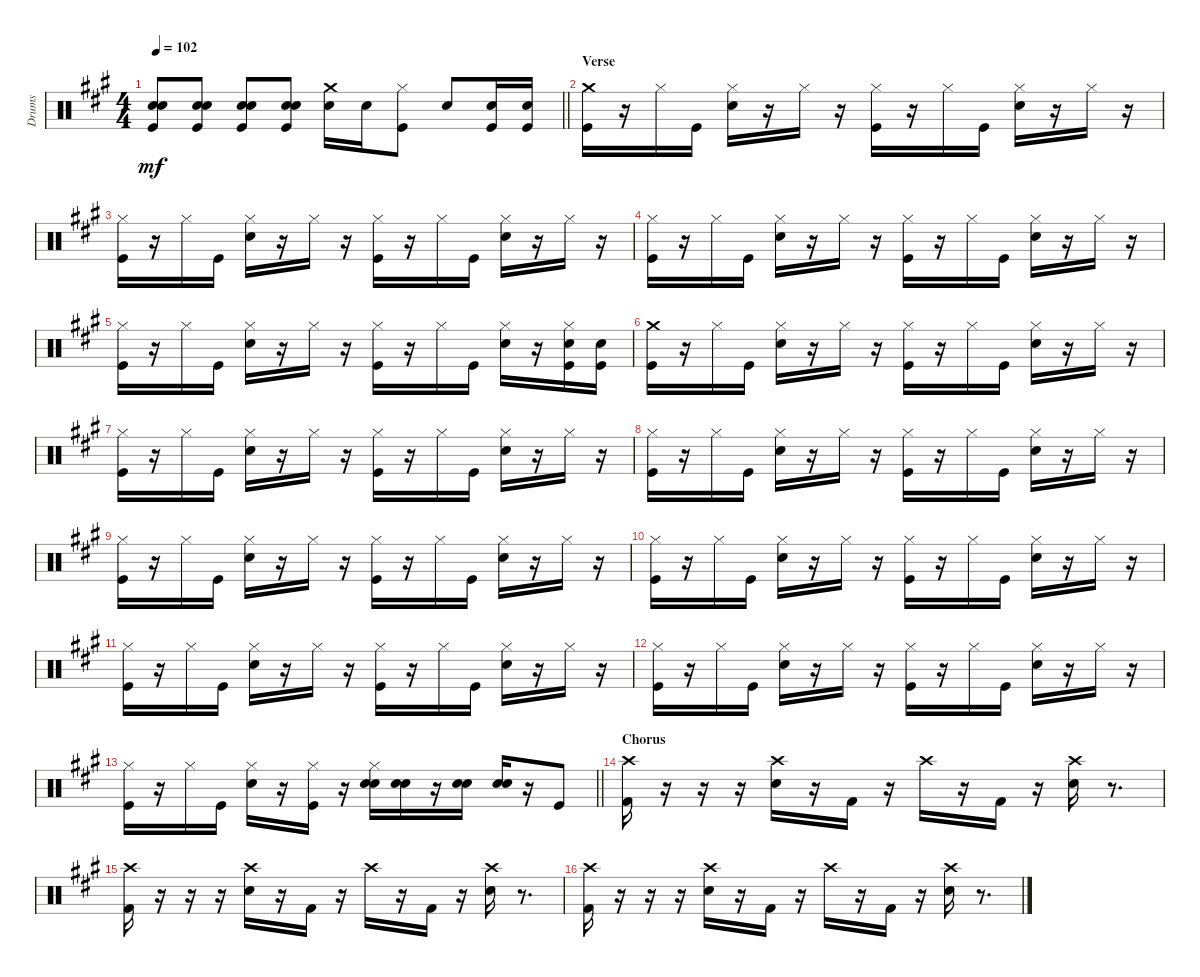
\track ("Drums" "Drums") {instrument percussion}
\staff {score}
\articulation defaults
\ts (4 4)
\tempo 102
\clef neutral
\barLineRight lightlight
\ks f#minor
("Snare (hit) 2" "Electric Snare (hit)" "Kick (hit)").8{dy mf} ("Snare (hit) 2" "Electric Snare (hit)" "Kick (hit)").8 ("Snare (hit) 2" "Electric Snare (hit)" "Kick (hit)").8 ("Snare (hit) 2" "Electric Snare (hit)" "Kick (hit)").8 ("Crash medium (hit)" "Electric Snare (hit)").16 "Electric Snare (hit)".16 ("Hi-Hat (closed)" "Kick (hit)").8 "Electric Snare (hit)".8 ("Electric Snare (hit)" "Kick (hit)").16 ("Electric Snare (hit)" "Kick (hit)").16 |
\section ("" "Verse")
("Crash medium (hit)" "Kick (hit)").16 r.16 "Hi-Hat (closed)".16 "Kick (hit)".16 ("Hi-Hat (closed)" "Snare (hit) 2").16 r.16 "Hi-Hat (closed)".16 r.16 ("Hi-Hat (closed)" "Kick (hit)").16 r.16 "Hi-Hat (closed)".16 "Kick (hit)".16 ("Hi-Hat (closed)" "Snare (hit) 2").16 r.16 "Hi-Hat (closed)".16 r.16 |
("Hi-Hat (closed)" "Kick (hit)").16 r.16 "Hi-Hat (closed)".16 "Kick (hit)".16 ("Hi-Hat (closed)" "Snare (hit) 2").16 r.16 "Hi-Hat (closed)".16 r.16 ("Hi-Hat (closed)" "Kick (hit)").16 r.16 "Hi-Hat (closed)".16 "Kick (hit)".16 ("Hi-Hat (closed)" "Snare (hit) 2").16 r.16 "Hi-Hat (closed)".16 r.16 |
("Hi-Hat (closed)" "Kick (hit)").16 r.16 "Hi-Hat (closed)".16 "Kick (hit)".16 ("Hi-Hat (closed)" "Snare (hit) 2").16 r.16 "Hi-Hat (closed)".16 r.16 ("Hi-Hat (closed)" "Kick (hit)").16 r.16 "Hi-Hat (closed)".16 "Kick (hit)".16 ("Hi-Hat (closed)" "Snare (hit) 2").16 r.16 "Hi-Hat (closed)".16 r.16 |
("Hi-Hat (closed)" "Kick (hit)").16 r.16 "Hi-Hat (closed)".16 "Kick (hit)".16 ("Hi-Hat (closed)" "Snare (hit) 2").16 r.16 "Hi-Hat (closed)".16 r.16 ("Hi-Hat (closed)" "Kick (hit)").16 r.16 "Hi-Hat (closed)".16 "Kick (hit)".16 ("Hi-Hat (closed)" "Snare (hit) 2").16 r.16 ("Hi-Hat (closed)" "Snare (hit) 2" "Kick (hit)").16 ("Snare (hit) 2" "Kick (hit)").16 |
("Crash medium (hit)" "Kick (hit)").16 r.16 "Hi-Hat (closed)".16 "Kick (hit)".16 ("Hi-Hat (closed)" "Snare (hit) 2").16 r.16 "Hi-Hat (closed)".16 r.16 ("Hi-Hat (closed)" "Kick (hit)").16 r.16 "Hi-Hat (closed)".16 "Kick (hit)".16 ("Hi-Hat (closed)" "Snare (hit) 2").16 r.16 "Hi-Hat (closed)".16 r.16 |
("Hi-Hat (closed)" "Kick (hit)").16 r.16 "Hi-Hat (closed)".16 "Kick (hit)".16 ("Hi-Hat (closed)" "Snare (hit) 2").16 r.16 "Hi-Hat (closed)".16 r.16 ("Hi-Hat (closed)" "Kick (hit)").16 r.16 "Hi-Hat (closed)".16 "Kick (hit)".16 ("Hi-Hat (closed)" "Snare (hit) 2").16 r.16 "Hi-Hat (closed)".16 r.16 |
("Hi-Hat (closed)" "Kick (hit)").16 r.16 "Hi-Hat (closed)".16 "Kick (hit)".16 ("Hi-Hat (closed)" "Snare (hit) 2").16 r.16 "Hi-Hat (closed)".16 r.16 ("Hi-Hat (closed)" "Kick (hit)").16 r.16 "Hi-Hat (closed)".16 "Kick (hit)".16 ("Hi-Hat (closed)" "Snare (hit) 2").16 r.16 "Hi-Hat (closed)".16 r.16 |
("Hi-Hat (closed)" "Kick (hit)").16 r.16 "Hi-Hat (closed)".16 "Kick (hit)".16 ("Hi-Hat (closed)" "Snare (hit) 2").16 r.16 "Hi-Hat (closed)".16 r.16 ("Hi-Hat (closed)" "Kick (hit)").16 r.16 "Hi-Hat (closed)".16 "Kick (hit)".16 ("Hi-Hat (closed)" "Snare (hit) 2").16 r.16 "Hi-Hat (closed)".16 r.16 |
("Hi-Hat (closed)" "Kick (hit)").16 r.16 "Hi-Hat (closed)".16 "Kick (hit)".16 ("Hi-Hat (closed)" "Snare (hit) 2").16 r.16 "Hi-Hat (closed)".16 r.16 ("Hi-Hat (closed)" "Kick (hit)").16 r.16 "Hi-Hat (closed)".16 "Kick (hit)".16 ("Hi-Hat (closed)" "Snare (hit) 2").16 r.16 "Hi-Hat (closed)".16 r.16 |
("Hi-Hat (closed)" "Kick (hit)").16 r.16 "Hi-Hat (closed)".16 "Kick (hit)".16 ("Hi-Hat (closed)" "Snare (hit) 2").16 r.16 "Hi-Hat (closed)".16 r.16 ("Hi-Hat (closed)" "Kick (hit)").16 r.16 "Hi-Hat (closed)".16 "Kick (hit)".16 ("Hi-Hat (closed)" "Snare (hit) 2").16 r.16 "Hi-Hat (closed)".16 r.16 |
("Hi-Hat (closed)" "Kick (hit)").16 r.16 "Hi-Hat (closed)".16 "Kick (hit)".16 ("Hi-Hat (closed)" "Snare (hit) 2").16 r.16 "Hi-Hat (closed)".16 r.16 ("Hi-Hat (closed)" "Kick (hit)").16 r.16 "Hi-Hat (closed)".16 "Kick (hit)".16 ("Hi-Hat (closed)" "Snare (hit) 2").16 r.16 "Hi-Hat (closed)".16 r.16 |
\barLineRight lightlight
("Hi-Hat (closed)" "Kick (hit)").16 r.16 "Hi-Hat (closed)".16 "Kick (hit)".16 ("Hi-Hat (closed)" "Snare (hit) 2").16 r.16 ("Hi-Hat (closed)" "Kick (hit)").16 r.16 ("Hi-Hat (closed)" "Snare (hit) 2" "Electric Snare (hit)").16 ("Snare (hit) 2" "Electric Snare (hit)").16 r.16 ("Snare (hit) 2" "Electric Snare (hit)").16 ("Snare (hit) 2" "Electric Snare (hit)").16 r.16 "Kick (hit)".8 |
\section ("" "Chorus")
("Crash high (hit)" "Kick (hit) 2").16 r.16 r.16 r.16 ("Crash high (hit)" "Electric Snare (hit)").16 r.16 "Kick (hit) 2".16 r.16 "Crash high (hit)".16 r.16 "Kick (hit) 2".16 r.16 ("Crash high (hit)" "Electric Snare (hit)").16 r.8{d} |
("Crash high (hit)" "Kick (hit) 2").16 r.16 r.16 r.16 ("Crash high (hit)" "Electric Snare (hit)").16 r.16 "Kick (hit) 2".16 r.16 "Crash high (hit)".16 r.16 "Kick (hit) 2".16 r.16 ("Crash high (hit)" "Electric Snare (hit)").16 r.8{d} |
("Crash high (hit)" "Kick (hit) 2").16 r.16 r.16 r.16 ("Crash high (hit)" "Electric Snare (hit)").16 r.16 "Kick (hit) 2".16 r.16 "Crash high (hit)".16 r.16 "Kick (hit) 2".16 r.16 ("Crash high (hit)" "Electric Snare (hit)").16 r.8{d}
